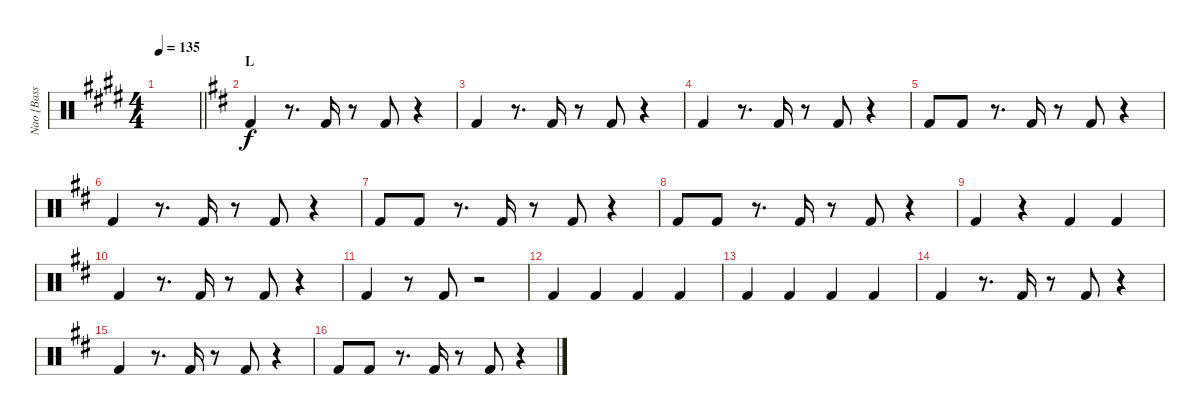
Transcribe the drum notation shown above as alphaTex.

\track ("Nao [Bass Drum]" "Nao [Bass ") {instrument percussion}
\staff {score}
\articulation defaults
\ts (4 4)
\tempo 135
\clef neutral
\barLineRight lightlight
\ks e
|
\section ("" "L")
\ks d "Kick (hit) 2".4
r.8{d} "Kick (hit) 2".16 r.8 "Kick (hit) 2".8 r.4 |
"Kick (hit) 2".4 r.8{d} "Kick (hit) 2".16 r.8 "Kick (hit) 2".8 r.4 |
"Kick (hit) 2".4 r.8{d} "Kick (hit) 2".16 r.8 "Kick (hit) 2".8 r.4 |
"Kick (hit) 2".8 "Kick (hit) 2".8 r.8{d} "Kick (hit) 2".16 r.8 "Kick (hit) 2".8 r.4 |
"Kick (hit) 2".4 r.8{d} "Kick (hit) 2".16 r.8 "Kick (hit) 2".8 r.4 |
"Kick (hit) 2".8 "Kick (hit) 2".8 r.8{d} "Kick (hit) 2".16 r.8 "Kick (hit) 2".8 r.4 |
"Kick (hit) 2".8 "Kick (hit) 2".8 r.8{d} "Kick (hit) 2".16 r.8 "Kick (hit) 2".8 r.4 |
"Kick (hit) 2".4 r.4 "Kick (hit) 2".4 "Kick (hit) 2".4 |
"Kick (hit) 2".4 r.8{d} "Kick (hit) 2".16 r.8 "Kick (hit) 2".8 r.4 |
"Kick (hit) 2".4 r.8 "Kick (hit) 2".8 r.2 |
"Kick (hit) 2".4 "Kick (hit) 2".4 "Kick (hit) 2".4 "Kick (hit) 2".4 |
"Kick (hit) 2".4 "Kick (hit) 2".4 "Kick (hit) 2".4 "Kick (hit) 2".4 |
"Kick (hit) 2".4 r.8{d} "Kick (hit) 2".16 r.8 "Kick (hit) 2".8 r.4 |
"Kick (hit) 2".4 r.8{d} "Kick (hit) 2".16 r.8 "Kick (hit) 2".8 r.4 |
"Kick (hit) 2".8 "Kick (hit) 2".8 r.8{d} "Kick (hit) 2".16 r.8 "Kick (hit) 2".8 r.4
